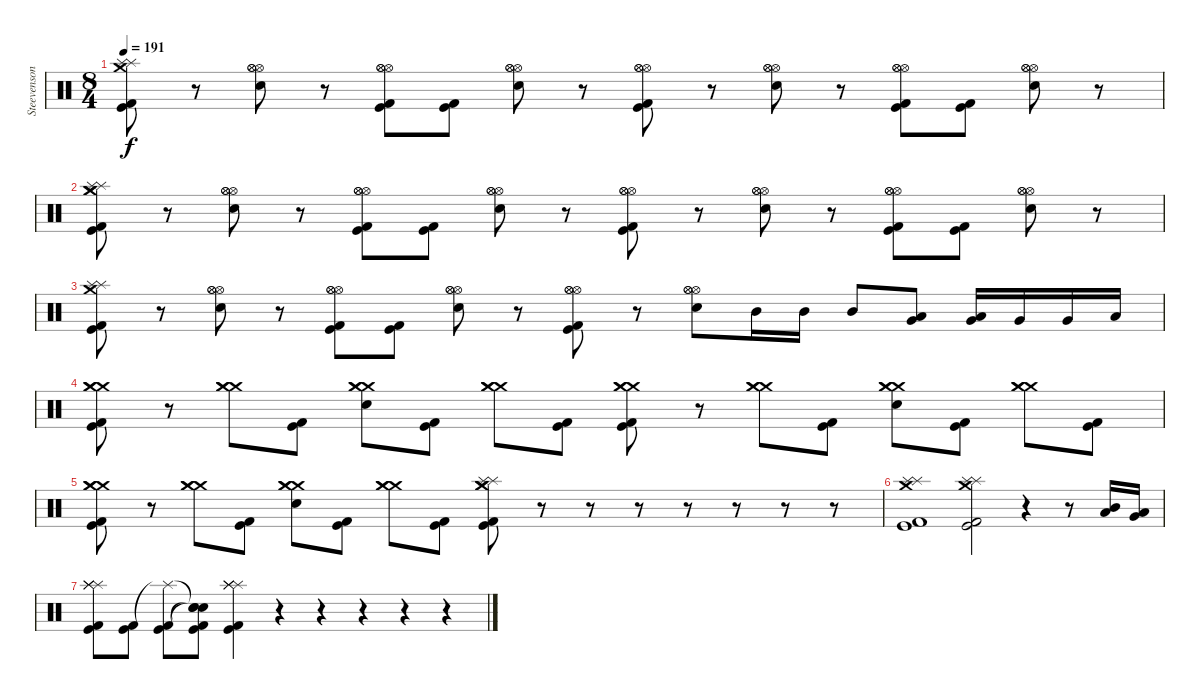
\track ("Steevenson" "Steevenson") {instrument percussion}
\staff {score}
\articulation defaults
\ts (8 4)
\tempo 191
\clef neutral
\ks c
("Splash (hit)" "Crash medium (hit)" "Splash (hit)" "Kick (hit)" "Kick (hit) 2").8{dy f} r.8 ("Hi-Hat (open)" "Hi-Hat (open)" "Hi-Hat (open)" "Snare (hit) 2").8 r.8 ("Hi-Hat (open)" "Hi-Hat (open)" "Hi-Hat (open)" "Kick (hit)" "Kick (hit) 2").8 ("Kick (hit)" "Kick (hit) 2").8 ("Hi-Hat (open)" "Hi-Hat (open)" "Hi-Hat (open)" "Snare (hit) 2").8 r.8 ("Hi-Hat (open)" "Hi-Hat (open)" "Hi-Hat (open)" "Kick (hit)" "Kick (hit) 2").8 r.8 ("Hi-Hat (open)" "Hi-Hat (open)" "Hi-Hat (open)" "Snare (hit) 2").8 r.8 ("Hi-Hat (open)" "Hi-Hat (open)" "Hi-Hat (open)" "Kick (hit)" "Kick (hit) 2").8 ("Kick (hit)" "Kick (hit) 2").8 ("Hi-Hat (open)" "Hi-Hat (open)" "Hi-Hat (open)" "Snare (hit) 2").8 r.8 |
("Splash (hit)" "Crash medium (hit)" "Crash medium (hit)" "Splash (hit)" "Kick (hit)" "Kick (hit) 2").8 r.8 ("Hi-Hat (open)" "Hi-Hat (open)" "Hi-Hat (open)" "Snare (hit) 2").8 r.8 ("Hi-Hat (open)" "Hi-Hat (open)" "Hi-Hat (open)" "Kick (hit)" "Kick (hit) 2").8 ("Kick (hit)" "Kick (hit) 2").8 ("Hi-Hat (open)" "Hi-Hat (open)" "Hi-Hat (open)" "Snare (hit) 2").8 r.8 ("Hi-Hat (open)" "Hi-Hat (open)" "Hi-Hat (open)" "Kick (hit)" "Kick (hit) 2").8 r.8 ("Hi-Hat (open)" "Hi-Hat (open)" "Hi-Hat (open)" "Snare (hit) 2").8 r.8 ("Hi-Hat (open)" "Hi-Hat (open)" "Hi-Hat (open)" "Kick (hit)" "Kick (hit) 2").8 ("Kick (hit)" "Kick (hit) 2").8 ("Hi-Hat (open)" "Hi-Hat (open)" "Hi-Hat (open)" "Snare (hit) 2").8 r.8 |
("Splash (hit)" "Crash medium (hit)" "Splash (hit)" "Kick (hit)" "Kick (hit) 2").8 r.8 ("Hi-Hat (open)" "Hi-Hat (open)" "Hi-Hat (open)" "Snare (hit) 2").8 r.8 ("Hi-Hat (open)" "Hi-Hat (open)" "Hi-Hat (open)" "Kick (hit)" "Kick (hit) 2").8 ("Kick (hit)" "Kick (hit) 2").8 ("Hi-Hat (open)" "Hi-Hat (open)" "Hi-Hat (open)" "Snare (hit) 2").8 r.8 ("Hi-Hat (open)" "Hi-Hat (open)" "Hi-Hat (open)" "Kick (hit)" "Kick (hit) 2").8 r.8 ("Hi-Hat (open)" "Hi-Hat (open)" "Hi-Hat (open)" "Snare (hit) 2").8 "Mid Tom (hit)".16 "Mid Tom (hit)".16 "Mid Tom (hit)".8 ("Low Tom (hit)" "Very Low Tom (hit)").8 ("Very Low Tom (hit)" "Low Tom (hit)").16 "Very Low Tom (hit)".16 "Very Low Tom (hit)".16 "Low Floor Tom (hit)".16 |
("Crash medium (hit)" "Crash medium (hit)" "Crash medium (hit)" "Kick (hit)" "Kick (hit) 2").8 r.8 ("Crash medium (hit)" "Crash medium (hit)" "Crash medium (hit)").8 ("Kick (hit)" "Kick (hit) 2").8 ("Crash medium (hit)" "Crash medium (hit)" "Crash medium (hit)" "Snare (hit) 2").8 ("Kick (hit)" "Kick (hit) 2").8 ("Crash medium (hit)" "Crash medium (hit)" "Crash medium (hit)").8 ("Kick (hit)" "Kick (hit) 2").8 ("Crash medium (hit)" "Crash medium (hit)" "Crash medium (hit)" "Kick (hit)" "Kick (hit) 2").8 r.8 ("Crash medium (hit)" "Crash medium (hit)" "Crash medium (hit)").8 ("Kick (hit)" "Kick (hit) 2").8 ("Crash medium (hit)" "Crash medium (hit)" "Crash medium (hit)" "Snare (hit) 2").8 ("Kick (hit)" "Kick (hit) 2").8 ("Crash medium (hit)" "Crash medium (hit)" "Crash medium (hit)").8 ("Kick (hit)" "Kick (hit) 2").8 |
("Crash medium (hit)" "Crash medium (hit)" "Crash medium (hit)" "Kick (hit)" "Kick (hit) 2").8 r.8 ("Crash medium (hit)" "Crash medium (hit)" "Crash medium (hit)").8 ("Kick (hit)" "Kick (hit) 2").8 ("Crash medium (hit)" "Crash medium (hit)" "Crash medium (hit)" "Snare (hit) 2").8 ("Kick (hit)" "Kick (hit) 2").8 ("Crash medium (hit)" "Crash medium (hit)" "Crash medium (hit)").8 ("Kick (hit)" "Kick (hit) 2").8 ("Crash medium (hit)" "Crash medium (hit)" "Splash (hit)" "Splash (hit)" "Kick (hit)" "Kick (hit) 2").8 r.8 r.8 r.8 r.8 r.8 r.8 r.8 |
("Crash medium (hit)" "Splash (hit)" "Splash (hit)" "Kick (hit)" "Kick (hit) 2").1 ("Splash (hit)" "Crash medium (hit)" "Splash (hit)" "Kick (hit)" "Kick (hit) 2").2 r.4 r.8 ("Low Tom (hit)" "Mid Tom (hit)").16 ("Very Low Tom (hit)" "Low Tom (hit)").16 |
("Splash (hit)" "Splash (hit)" "Splash (hit)" "Splash (hit)" "Kick (hit)" "Kick (hit) 2").8 ("Kick (hit)" "Kick (hit) 2").8 ("Splash (hit)"{t} "Kick (hit)" "Kick (hit) 2").8 ("Snare (hit)"{t} "Snare (hit)"{t} "Snare (hit)"{t} "Kick (hit)" "Kick (hit) 2").8 ("Splash (hit)" "Splash (hit)" "Splash (hit)" "Splash (hit)" "Kick (hit)" "Kick (hit) 2").4 r.4 r.4 r.4 r.4 r.4
